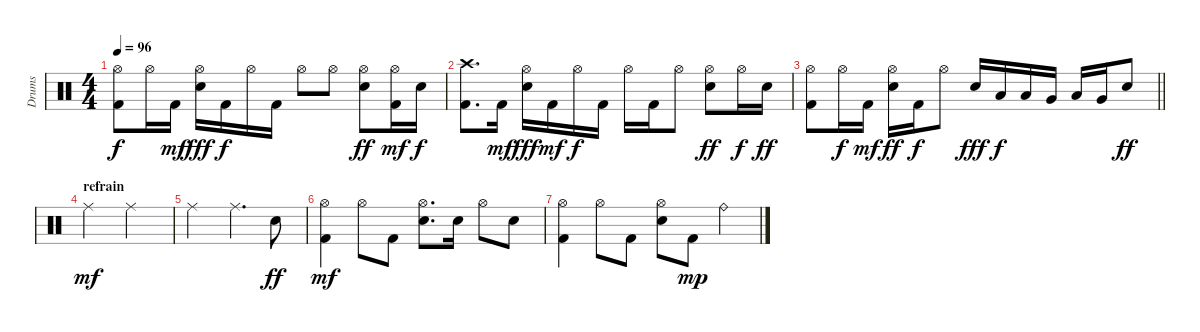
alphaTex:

\track ("Drums" "Drums") {instrument percussion}
\staff {score}
\articulation defaults
\ts (4 4)
\tempo 96
\clef neutral
\ks c
("Hi-Hat (open)" "Kick (hit) 2").8{dy f} "Hi-Hat (open)".16 "Kick (hit) 2".16{dy mf} ("Hi-Hat (open)" "Electric Snare (hit)").16{dy fff} "Kick (hit) 2".16{dy f} "Hi-Hat (open)".16 "Kick (hit) 2".16 "Hi-Hat (open)".8 "Hi-Hat (open)".8 ("Hi-Hat (open)" "Electric Snare (hit)").8{dy ff} ("Hi-Hat (open)" "Kick (hit) 2").16{dy mf} "Electric Snare (hit)".16{dy f} |
("Crash high (hit)" "Kick (hit) 2").8{d} "Kick (hit) 2".16{dy mf} ("Hi-Hat (open)" "Electric Snare (hit)").16{dy fff} "Kick (hit) 2".16{dy mf} "Hi-Hat (open)".16{dy f} "Kick (hit) 2".16 "Hi-Hat (open)".16 "Kick (hit) 2".16 "Hi-Hat (open)".8 ("Hi-Hat (open)" "Electric Snare (hit)").8{dy ff} "Hi-Hat (open)".16{dy f} "Electric Snare (hit)".16{dy ff} |
\barLineRight lightlight
("Hi-Hat (open)" "Kick (hit) 2").8 "Hi-Hat (open)".16{dy f} "Kick (hit) 2".16{dy mf} ("Hi-Hat (open)" "Electric Snare (hit)").16{dy ff} "Kick (hit) 2".16{dy f} "Hi-Hat (open)".8 "Electric Snare (hit)".16{dy fff} "Low Tom (hit)".16{dy f} "Low Tom (hit)".16 "Very Low Tom (hit)".16 "Low Tom (hit)".16 "Very Low Tom (hit)".16 "Electric Snare (hit)".8{dy ff} |
\section ("" "refrain")
"Ride (middle)".2{dy mf} "Ride (middle)".2 |
"Ride (middle)".2 "Ride (middle)".4{d} "Electric Snare (hit)".8{dy ff} |
("Hi-Hat (open)" "Kick (hit) 2").4{dy mf} "Hi-Hat (open)".8 "Kick (hit) 2".8 ("Hi-Hat (open)" "Electric Snare (hit)").8{d} "Electric Snare (hit)".16 "Hi-Hat (open)".8 "Electric Snare (hit)".8 |
("Hi-Hat (open)" "Kick (hit) 2").4 "Hi-Hat (open)".8 "Kick (hit) 2".8 ("Hi-Hat (open)" "Electric Snare (hit)").8 "Kick (hit) 2".8{dy mp} "Ride (bell)".4
